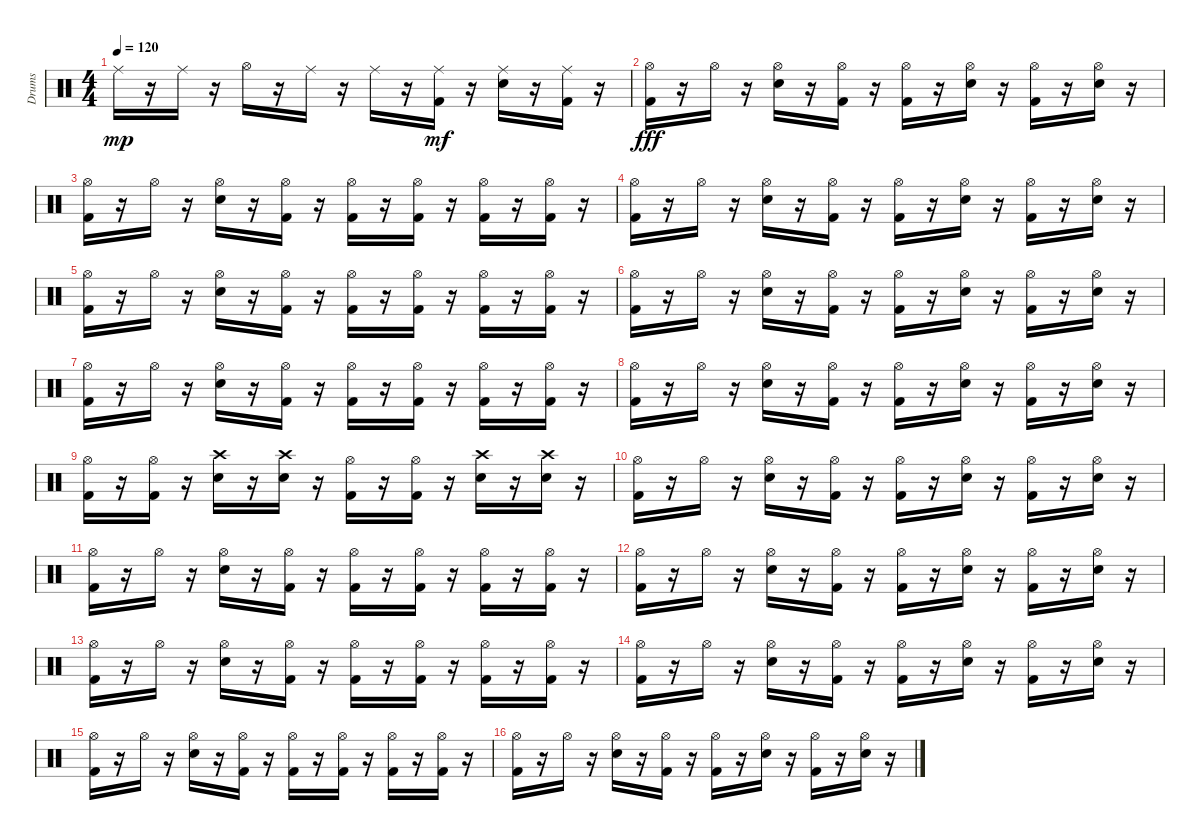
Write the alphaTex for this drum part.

\track ("Drums" "Drums") {instrument percussion}
\staff {score}
\articulation defaults
\ts (4 4)
\tempo 120
\clef neutral
\ks c "Ride (middle)".16{dy mp}
r.16 "Ride (middle)".16 r.16 "Hi-Hat (open)".16 r.16 "Ride (middle)".16 r.16 "Ride (middle)".16 r.16 ("Kick (hit) 2" "Ride (middle)").16{dy mf} r.16 ("Snare (hit) 2" "Ride (middle)").16 r.16 ("Kick (hit) 2" "Ride (middle)").16 r.16 |
("Kick (hit) 2" "Hi-Hat (open)").16{dy fff} r.16 "Hi-Hat (open)".16 r.16 ("Snare (hit) 2" "Hi-Hat (open)").16 r.16 ("Kick (hit) 2" "Hi-Hat (open)").16 r.16 ("Kick (hit) 2" "Hi-Hat (open)").16 r.16 ("Snare (hit) 2" "Hi-Hat (open)").16 r.16 ("Kick (hit) 2" "Hi-Hat (open)").16 r.16 ("Snare (hit) 2" "Hi-Hat (open)").16 r.16 |
("Kick (hit) 2" "Hi-Hat (open)").16 r.16 "Hi-Hat (open)".16 r.16 ("Snare (hit) 2" "Hi-Hat (open)").16 r.16 ("Kick (hit) 2" "Hi-Hat (open)").16 r.16 ("Kick (hit) 2" "Hi-Hat (open)").16 r.16 ("Kick (hit) 2" "Hi-Hat (open)").16 r.16 ("Kick (hit) 2" "Hi-Hat (open)").16 r.16 ("Kick (hit) 2" "Hi-Hat (open)").16 r.16 |
("Kick (hit) 2" "Hi-Hat (open)").16 r.16 "Hi-Hat (open)".16 r.16 ("Snare (hit) 2" "Hi-Hat (open)").16 r.16 ("Kick (hit) 2" "Hi-Hat (open)").16 r.16 ("Kick (hit) 2" "Hi-Hat (open)").16 r.16 ("Snare (hit) 2" "Hi-Hat (open)").16 r.16 ("Kick (hit) 2" "Hi-Hat (open)").16 r.16 ("Snare (hit) 2" "Hi-Hat (open)").16 r.16 |
("Kick (hit) 2" "Hi-Hat (open)").16 r.16 "Hi-Hat (open)".16 r.16 ("Snare (hit) 2" "Hi-Hat (open)").16 r.16 ("Kick (hit) 2" "Hi-Hat (open)").16 r.16 ("Kick (hit) 2" "Hi-Hat (open)").16 r.16 ("Kick (hit) 2" "Hi-Hat (open)").16 r.16 ("Kick (hit) 2" "Hi-Hat (open)").16 r.16 ("Kick (hit) 2" "Hi-Hat (open)").16 r.16 |
("Kick (hit) 2" "Hi-Hat (open)").16 r.16 "Hi-Hat (open)".16 r.16 ("Snare (hit) 2" "Hi-Hat (open)").16 r.16 ("Kick (hit) 2" "Hi-Hat (open)").16 r.16 ("Kick (hit) 2" "Hi-Hat (open)").16 r.16 ("Snare (hit) 2" "Hi-Hat (open)").16 r.16 ("Kick (hit) 2" "Hi-Hat (open)").16 r.16 ("Snare (hit) 2" "Hi-Hat (open)").16 r.16 |
("Kick (hit) 2" "Hi-Hat (open)").16 r.16 "Hi-Hat (open)".16 r.16 ("Snare (hit) 2" "Hi-Hat (open)").16 r.16 ("Kick (hit) 2" "Hi-Hat (open)").16 r.16 ("Kick (hit) 2" "Hi-Hat (open)").16 r.16 ("Kick (hit) 2" "Hi-Hat (open)").16 r.16 ("Kick (hit) 2" "Hi-Hat (open)").16 r.16 ("Kick (hit) 2" "Hi-Hat (open)").16 r.16 |
("Kick (hit) 2" "Hi-Hat (open)").16 r.16 "Hi-Hat (open)".16 r.16 ("Snare (hit) 2" "Hi-Hat (open)").16 r.16 ("Kick (hit) 2" "Hi-Hat (open)").16 r.16 ("Kick (hit) 2" "Hi-Hat (open)").16 r.16 ("Snare (hit) 2" "Hi-Hat (open)").16 r.16 ("Kick (hit) 2" "Hi-Hat (open)").16 r.16 ("Snare (hit) 2" "Hi-Hat (open)").16 r.16 |
("Kick (hit) 2" "Hi-Hat (open)").16 r.16 ("Kick (hit) 2" "Hi-Hat (open)").16 r.16 ("Crash high (hit)" "Snare (hit) 2").16 r.16 ("Crash high (hit)" "Snare (hit) 2").16 r.16 ("Kick (hit) 2" "Hi-Hat (open)").16 r.16 ("Kick (hit) 2" "Hi-Hat (open)").16 r.16 ("Crash high (hit)" "Snare (hit) 2").16 r.16 ("Crash high (hit)" "Snare (hit) 2").16 r.16 |
("Kick (hit) 2" "Hi-Hat (open)").16 r.16 "Hi-Hat (open)".16 r.16 ("Snare (hit) 2" "Hi-Hat (open)").16 r.16 ("Kick (hit) 2" "Hi-Hat (open)").16 r.16 ("Kick (hit) 2" "Hi-Hat (open)").16 r.16 ("Snare (hit) 2" "Hi-Hat (open)").16 r.16 ("Kick (hit) 2" "Hi-Hat (open)").16 r.16 ("Snare (hit) 2" "Hi-Hat (open)").16 r.16 |
("Kick (hit) 2" "Hi-Hat (open)").16 r.16 "Hi-Hat (open)".16 r.16 ("Snare (hit) 2" "Hi-Hat (open)").16 r.16 ("Kick (hit) 2" "Hi-Hat (open)").16 r.16 ("Kick (hit) 2" "Hi-Hat (open)").16 r.16 ("Kick (hit) 2" "Hi-Hat (open)").16 r.16 ("Kick (hit) 2" "Hi-Hat (open)").16 r.16 ("Kick (hit) 2" "Hi-Hat (open)").16 r.16 |
("Kick (hit) 2" "Hi-Hat (open)").16 r.16 "Hi-Hat (open)".16 r.16 ("Snare (hit) 2" "Hi-Hat (open)").16 r.16 ("Kick (hit) 2" "Hi-Hat (open)").16 r.16 ("Kick (hit) 2" "Hi-Hat (open)").16 r.16 ("Snare (hit) 2" "Hi-Hat (open)").16 r.16 ("Kick (hit) 2" "Hi-Hat (open)").16 r.16 ("Snare (hit) 2" "Hi-Hat (open)").16 r.16 |
("Kick (hit) 2" "Hi-Hat (open)").16 r.16 "Hi-Hat (open)".16 r.16 ("Snare (hit) 2" "Hi-Hat (open)").16 r.16 ("Kick (hit) 2" "Hi-Hat (open)").16 r.16 ("Kick (hit) 2" "Hi-Hat (open)").16 r.16 ("Kick (hit) 2" "Hi-Hat (open)").16 r.16 ("Kick (hit) 2" "Hi-Hat (open)").16 r.16 ("Kick (hit) 2" "Hi-Hat (open)").16 r.16 |
("Kick (hit) 2" "Hi-Hat (open)").16 r.16 "Hi-Hat (open)".16 r.16 ("Snare (hit) 2" "Hi-Hat (open)").16 r.16 ("Kick (hit) 2" "Hi-Hat (open)").16 r.16 ("Kick (hit) 2" "Hi-Hat (open)").16 r.16 ("Snare (hit) 2" "Hi-Hat (open)").16 r.16 ("Kick (hit) 2" "Hi-Hat (open)").16 r.16 ("Snare (hit) 2" "Hi-Hat (open)").16 r.16 |
("Kick (hit) 2" "Hi-Hat (open)").16 r.16 "Hi-Hat (open)".16 r.16 ("Snare (hit) 2" "Hi-Hat (open)").16 r.16 ("Kick (hit) 2" "Hi-Hat (open)").16 r.16 ("Kick (hit) 2" "Hi-Hat (open)").16 r.16 ("Kick (hit) 2" "Hi-Hat (open)").16 r.16 ("Kick (hit) 2" "Hi-Hat (open)").16 r.16 ("Kick (hit) 2" "Hi-Hat (open)").16 r.16 |
("Kick (hit) 2" "Hi-Hat (open)").16 r.16 "Hi-Hat (open)".16 r.16 ("Snare (hit) 2" "Hi-Hat (open)").16 r.16 ("Kick (hit) 2" "Hi-Hat (open)").16 r.16 ("Kick (hit) 2" "Hi-Hat (open)").16 r.16 ("Snare (hit) 2" "Hi-Hat (open)").16 r.16 ("Kick (hit) 2" "Hi-Hat (open)").16 r.16 ("Snare (hit) 2" "Hi-Hat (open)").16 r.16
